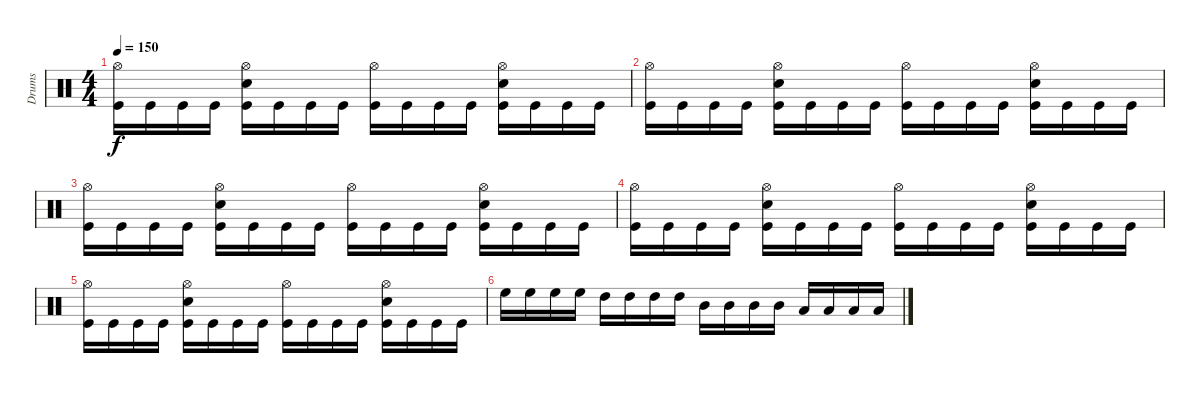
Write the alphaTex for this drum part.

\track ("Drums" "Drums") {instrument percussion}
\staff {score}
\articulation defaults
\ts (4 4)
\tempo 150
\clef neutral
\ks c
("Hi-Hat (open)" "Kick (hit)").16{dy f} "Kick (hit)".16 "Kick (hit)".16 "Kick (hit)".16 ("Hi-Hat (open)" "Snare (hit) 2" "Kick (hit)").16 "Kick (hit)".16 "Kick (hit)".16 "Kick (hit)".16 ("Hi-Hat (open)" "Kick (hit)").16 "Kick (hit)".16 "Kick (hit)".16 "Kick (hit)".16 ("Hi-Hat (open)" "Snare (hit) 2" "Kick (hit)").16 "Kick (hit)".16 "Kick (hit)".16 "Kick (hit)".16 |
("Hi-Hat (open)" "Kick (hit)").16 "Kick (hit)".16 "Kick (hit)".16 "Kick (hit)".16 ("Hi-Hat (open)" "Snare (hit) 2" "Kick (hit)").16 "Kick (hit)".16 "Kick (hit)".16 "Kick (hit)".16 ("Hi-Hat (open)" "Kick (hit)").16 "Kick (hit)".16 "Kick (hit)".16 "Kick (hit)".16 ("Hi-Hat (open)" "Snare (hit) 2" "Kick (hit)").16 "Kick (hit)".16 "Kick (hit)".16 "Kick (hit)".16 |
("Hi-Hat (open)" "Kick (hit)").16 "Kick (hit)".16 "Kick (hit)".16 "Kick (hit)".16 ("Hi-Hat (open)" "Snare (hit) 2" "Kick (hit)").16 "Kick (hit)".16 "Kick (hit)".16 "Kick (hit)".16 ("Hi-Hat (open)" "Kick (hit)").16 "Kick (hit)".16 "Kick (hit)".16 "Kick (hit)".16 ("Hi-Hat (open)" "Snare (hit) 2" "Kick (hit)").16 "Kick (hit)".16 "Kick (hit)".16 "Kick (hit)".16 |
("Hi-Hat (open)" "Kick (hit)").16 "Kick (hit)".16 "Kick (hit)".16 "Kick (hit)".16 ("Hi-Hat (open)" "Snare (hit) 2" "Kick (hit)").16 "Kick (hit)".16 "Kick (hit)".16 "Kick (hit)".16 ("Hi-Hat (open)" "Kick (hit)").16 "Kick (hit)".16 "Kick (hit)".16 "Kick (hit)".16 ("Hi-Hat (open)" "Snare (hit) 2" "Kick (hit)").16 "Kick (hit)".16 "Kick (hit)".16 "Kick (hit)".16 |
("Hi-Hat (open)" "Kick (hit)").16 "Kick (hit)".16 "Kick (hit)".16 "Kick (hit)".16 ("Hi-Hat (open)" "Snare (hit) 2" "Kick (hit)").16 "Kick (hit)".16 "Kick (hit)".16 "Kick (hit)".16 ("Hi-Hat (open)" "Kick (hit)").16 "Kick (hit)".16 "Kick (hit)".16 "Kick (hit)".16 ("Hi-Hat (open)" "Snare (hit) 2" "Kick (hit)").16 "Kick (hit)".16 "Kick (hit)".16 "Kick (hit)".16 |
"High Floor Tom (hit)".16 "High Floor Tom (hit)".16 "High Floor Tom (hit)".16 "High Floor Tom (hit)".16 "High Tom (hit)".16 "High Tom (hit)".16 "High Tom (hit)".16 "High Tom (hit)".16 "Mid Tom (hit)".16 "Mid Tom (hit)".16 "Mid Tom (hit)".16 "Mid Tom (hit)".16 "Low Tom (hit)".16 "Low Tom (hit)".16 "Low Tom (hit)".16 "Low Tom (hit)".16
